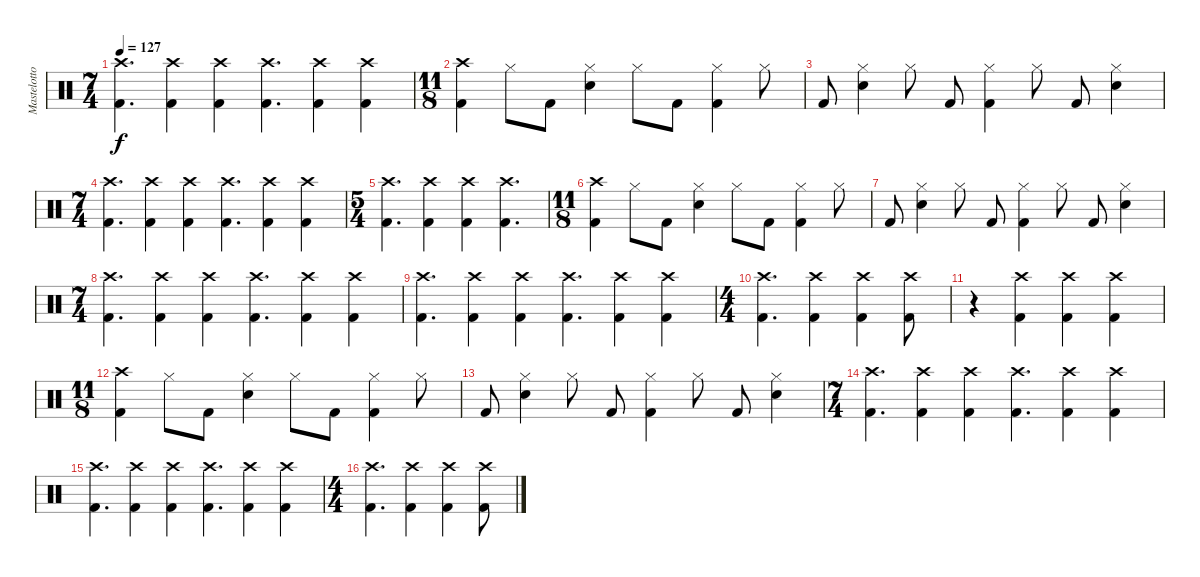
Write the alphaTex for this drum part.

\track ("Mastelotto" "Mastelotto") {instrument percussion}
\staff {score}
\articulation defaults
\ts (7 4)
\tempo 127
\clef neutral
\ks c
("Crash high (hit)" "Kick (hit) 2").4{d dy f} ("Crash high (hit)" "Kick (hit) 2").4 ("Crash high (hit)" "Kick (hit) 2").4 ("Crash high (hit)" "Kick (hit) 2").4{d} ("Crash high (hit)" "Kick (hit) 2").4 ("Crash high (hit)" "Kick (hit) 2").4 |
\ts (11 8)
("Crash high (hit)" "Kick (hit) 2").4 "Hi-Hat (closed)".8 "Kick (hit) 2".8 ("Hi-Hat (closed)" "Electric Snare (hit)").4 "Hi-Hat (closed)".8 "Kick (hit) 2".8 ("Hi-Hat (closed)" "Kick (hit) 2").4 "Hi-Hat (closed)".8 |
"Kick (hit) 2".8 ("Hi-Hat (closed)" "Electric Snare (hit)").4 "Hi-Hat (closed)".8 "Kick (hit) 2".8 ("Hi-Hat (closed)" "Kick (hit) 2").4 "Hi-Hat (closed)".8 "Kick (hit) 2".8 ("Hi-Hat (closed)" "Electric Snare (hit)").4 |
\ts (7 4)
("Crash high (hit)" "Kick (hit) 2").4{d} ("Crash high (hit)" "Kick (hit) 2").4 ("Crash high (hit)" "Kick (hit) 2").4 ("Crash high (hit)" "Kick (hit) 2").4{d} ("Crash high (hit)" "Kick (hit) 2").4 ("Crash high (hit)" "Kick (hit) 2").4 |
\ts (5 4)
("Crash high (hit)" "Kick (hit) 2").4{d} ("Crash high (hit)" "Kick (hit) 2").4 ("Crash high (hit)" "Kick (hit) 2").4 ("Crash high (hit)" "Kick (hit) 2").4{d} |
\ts (11 8)
("Crash high (hit)" "Kick (hit) 2").4 "Hi-Hat (closed)".8 "Kick (hit) 2".8 ("Hi-Hat (closed)" "Electric Snare (hit)").4 "Hi-Hat (closed)".8 "Kick (hit) 2".8 ("Hi-Hat (closed)" "Kick (hit) 2").4 "Hi-Hat (closed)".8 |
"Kick (hit) 2".8 ("Hi-Hat (closed)" "Electric Snare (hit)").4 "Hi-Hat (closed)".8 "Kick (hit) 2".8 ("Hi-Hat (closed)" "Kick (hit) 2").4 "Hi-Hat (closed)".8 "Kick (hit) 2".8 ("Hi-Hat (closed)" "Electric Snare (hit)").4 |
\ts (7 4)
("Crash high (hit)" "Kick (hit) 2").4{d} ("Crash high (hit)" "Kick (hit) 2").4 ("Crash high (hit)" "Kick (hit) 2").4 ("Crash high (hit)" "Kick (hit) 2").4{d} ("Crash high (hit)" "Kick (hit) 2").4 ("Crash high (hit)" "Kick (hit) 2").4 |
("Crash high (hit)" "Kick (hit) 2").4{d} ("Crash high (hit)" "Kick (hit) 2").4 ("Crash high (hit)" "Kick (hit) 2").4 ("Crash high (hit)" "Kick (hit) 2").4{d} ("Crash high (hit)" "Kick (hit) 2").4 ("Crash high (hit)" "Kick (hit) 2").4 |
\ts (4 4)
("Crash high (hit)" "Kick (hit) 2").4{d} ("Crash high (hit)" "Kick (hit) 2").4 ("Crash high (hit)" "Kick (hit) 2").4 ("Crash high (hit)" "Kick (hit) 2").8 |
r.4 ("Crash high (hit)" "Kick (hit) 2").4 ("Crash high (hit)" "Kick (hit) 2").4 ("Crash high (hit)" "Kick (hit) 2").4 |
\ts (11 8)
("Crash high (hit)" "Kick (hit) 2").4 "Hi-Hat (closed)".8 "Kick (hit) 2".8 ("Hi-Hat (closed)" "Electric Snare (hit)").4 "Hi-Hat (closed)".8 "Kick (hit) 2".8 ("Hi-Hat (closed)" "Kick (hit) 2").4 "Hi-Hat (closed)".8 |
"Kick (hit) 2".8 ("Hi-Hat (closed)" "Electric Snare (hit)").4 "Hi-Hat (closed)".8 "Kick (hit) 2".8 ("Hi-Hat (closed)" "Kick (hit) 2").4 "Hi-Hat (closed)".8 "Kick (hit) 2".8 ("Hi-Hat (closed)" "Electric Snare (hit)").4 |
\ts (7 4)
("Crash high (hit)" "Kick (hit) 2").4{d} ("Crash high (hit)" "Kick (hit) 2").4 ("Crash high (hit)" "Kick (hit) 2").4 ("Crash high (hit)" "Kick (hit) 2").4{d} ("Crash high (hit)" "Kick (hit) 2").4 ("Crash high (hit)" "Kick (hit) 2").4 |
("Crash high (hit)" "Kick (hit) 2").4{d} ("Crash high (hit)" "Kick (hit) 2").4 ("Crash high (hit)" "Kick (hit) 2").4 ("Crash high (hit)" "Kick (hit) 2").4{d} ("Crash high (hit)" "Kick (hit) 2").4 ("Crash high (hit)" "Kick (hit) 2").4 |
\ts (4 4)
("Crash high (hit)" "Kick (hit) 2").4{d} ("Crash high (hit)" "Kick (hit) 2").4 ("Crash high (hit)" "Kick (hit) 2").4 ("Crash high (hit)" "Kick (hit) 2").8
